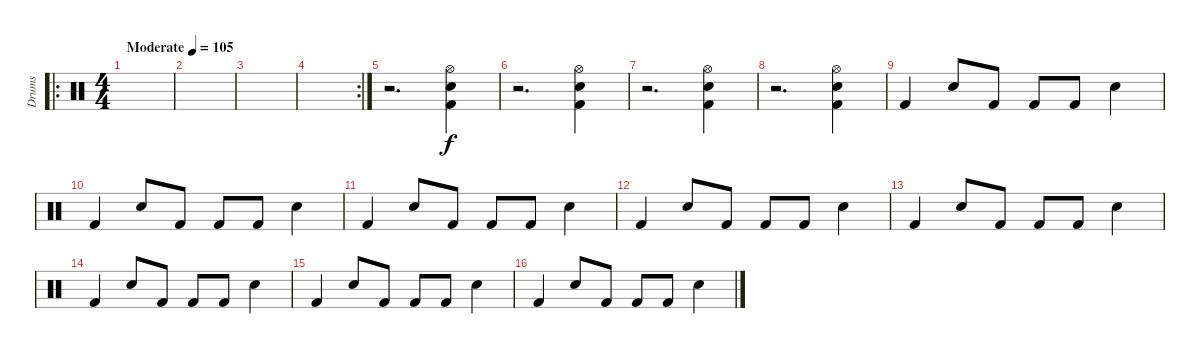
\track ("Drums" "Drums") {instrument percussion}
\staff {score}
\articulation defaults
\ro
\ts (4 4)
\tempo (105 "Moderate")
\clef neutral
\ks c
|
|
|
\rc 2
|
r.2{d} ("Kick (hit) 2" "Snare (hit) 2" "Hi-Hat (open)").4 |
r.2{d} ("Kick (hit) 2" "Snare (hit) 2" "Hi-Hat (open)").4 |
r.2{d} ("Kick (hit) 2" "Snare (hit) 2" "Hi-Hat (open)").4 |
r.2{d} ("Kick (hit) 2" "Snare (hit) 2" "Hi-Hat (open)").4 |
"Kick (hit) 2".4 "Snare (hit) 2".8 "Kick (hit) 2".8 "Kick (hit) 2".8 "Kick (hit) 2".8 "Snare (hit) 2".4 |
"Kick (hit) 2".4 "Snare (hit) 2".8 "Kick (hit) 2".8 "Kick (hit) 2".8 "Kick (hit) 2".8 "Snare (hit) 2".4 |
"Kick (hit) 2".4 "Snare (hit) 2".8 "Kick (hit) 2".8 "Kick (hit) 2".8 "Kick (hit) 2".8 "Snare (hit) 2".4 |
"Kick (hit) 2".4 "Snare (hit) 2".8 "Kick (hit) 2".8 "Kick (hit) 2".8 "Kick (hit) 2".8 "Snare (hit) 2".4 |
"Kick (hit) 2".4 "Snare (hit) 2".8 "Kick (hit) 2".8 "Kick (hit) 2".8 "Kick (hit) 2".8 "Snare (hit) 2".4 |
"Kick (hit) 2".4 "Snare (hit) 2".8 "Kick (hit) 2".8 "Kick (hit) 2".8 "Kick (hit) 2".8 "Snare (hit) 2".4 |
"Kick (hit) 2".4 "Snare (hit) 2".8 "Kick (hit) 2".8 "Kick (hit) 2".8 "Kick (hit) 2".8 "Snare (hit) 2".4 |
"Kick (hit) 2".4 "Snare (hit) 2".8 "Kick (hit) 2".8 "Kick (hit) 2".8 "Kick (hit) 2".8 "Snare (hit) 2".4
